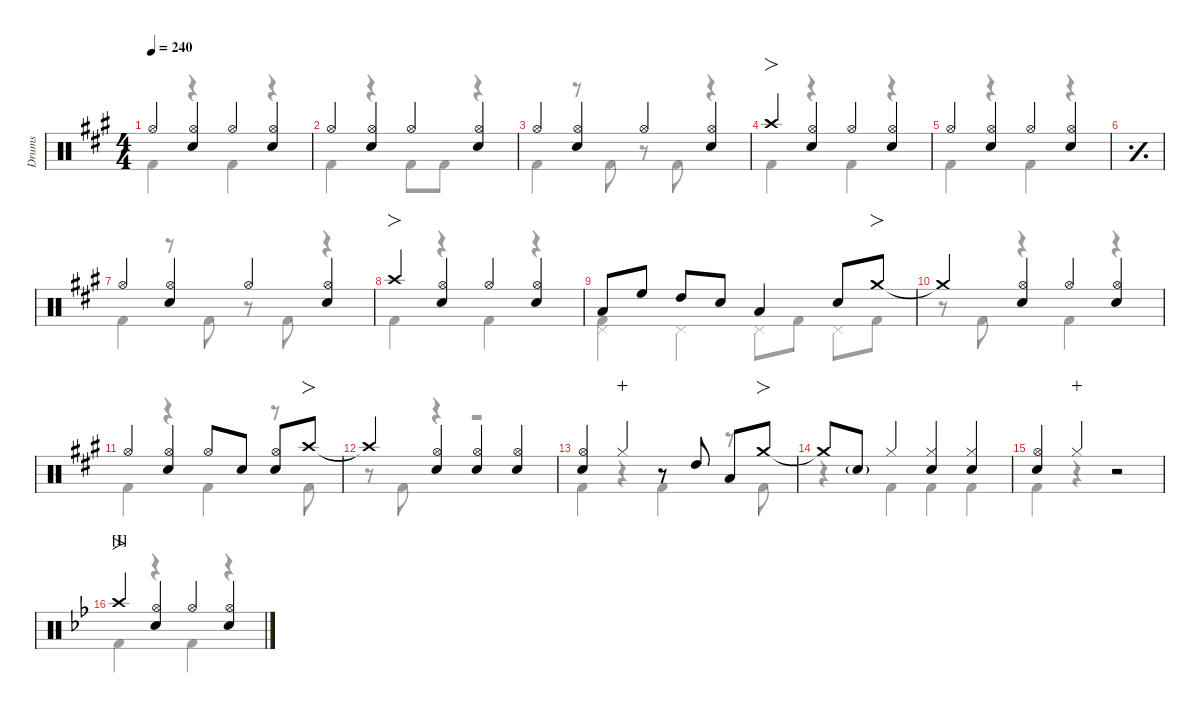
\defaultSystemsLayout 4
\hideDynamics
\bracketExtendMode nobrackets
\otherSystemsTrackNameOrientation horizontal
\track ("Drums" "Drums") {defaultSystemsLayout 4 instrument percussion}
\staff {score}
\articulation defaults
\voice
\ts (4 4)
\tempo 240
\clef neutral
\scale
0.976526
\ks a "Hi-Hat (open)"{acc forcenatural}.4{dy f beam Up}
("Hi-Hat (open)"{acc forcenatural} "Snare (hit) 2"{acc forcenatural}).4{beam Up} "Hi-Hat (open)"{acc forcenatural}.4{beam Up} ("Hi-Hat (open)"{acc forcenatural} "Snare (hit) 2"{acc forcenatural}).4{beam Up} |
\scale
0.976526 "Hi-Hat (open)"{acc forcenatural}.4{beam Up} ("Hi-Hat (open)"{acc forcenatural} "Snare (hit) 2"{acc forcenatural}).4{beam Up} "Hi-Hat (open)"{acc forcenatural}.4{beam Up} ("Hi-Hat (open)"{acc forcenatural} "Snare (hit) 2"{acc forcenatural}).4{beam Up} |
\scale
0.976526 "Hi-Hat (open)"{acc forcenatural}.4{beam Up} ("Hi-Hat (open)"{acc forcenatural} "Snare (hit) 2"{acc forcenatural}).4{beam Up} "Hi-Hat (open)"{acc forcenatural}.4{beam Up} ("Hi-Hat (open)"{acc forcenatural} "Snare (hit) 2"{acc forcenatural}).4{beam Up} |
\scale
1.07042 "Crash high (hit)"{acc forcenatural}.4{fo beam Up} ("Hi-Hat (open)"{acc forcenatural} "Snare (hit) 2"{acc forcenatural}).4{beam Up} "Hi-Hat (open)"{acc forcenatural}.4{beam Up} ("Hi-Hat (open)"{acc forcenatural} "Snare (hit) 2"{acc forcenatural}).4{beam Up} |
\scale
0.976526 "Hi-Hat (open)"{acc forcenatural}.4{beam Up} ("Hi-Hat (open)"{acc forcenatural} "Snare (hit) 2"{acc forcenatural}).4{beam Up} "Hi-Hat (open)"{acc forcenatural}.4{beam Up} ("Hi-Hat (open)"{acc forcenatural} "Snare (hit) 2"{acc forcenatural}).4{beam Up} |
\simile simple
\scale
0.976526 |
\simile none
\scale
0.976526 "Hi-Hat (open)"{acc forcenatural}.4{beam Up} ("Hi-Hat (open)"{acc forcenatural} "Snare (hit) 2"{acc forcenatural}).4{beam Up} "Hi-Hat (open)"{acc forcenatural}.4{beam Up} ("Hi-Hat (open)"{acc forcenatural} "Snare (hit) 2"{acc forcenatural}).4{beam Up} |
\scale
1.07042 "Crash high (hit)"{acc forcenatural}.4{fo beam Up} ("Hi-Hat (open)"{acc forcenatural} "Snare (hit) 2"{acc forcenatural}).4{beam Up} "Hi-Hat (open)"{acc forcenatural}.4{beam Up} ("Hi-Hat (open)"{acc forcenatural} "Snare (hit) 2"{acc forcenatural}).4{beam Up} |
\scale
0.976526 "Low Tom (hit)"{acc forcenatural}.8{dy fff beam Up} "High Floor Tom (hit)"{acc forcenatural}.8{beam Up} "High Tom (hit)"{acc forcenatural}.8{beam Up} "Snare (hit) 2"{acc forcenatural}.8{dy f beam Up} "Low Tom (hit)"{acc forcenatural}.4{dy fff beam Up} "Snare (hit) 2"{acc forcenatural}.8{dy f beam Up} "Crash medium (hit)"{acc forcenatural}.8{fo beam Up} |
\scale
0.976526 "Crash medium (hit)"{t acc forcenatural}.4{beam Up} ("Snare (hit) 2"{acc forcenatural} "Hi-Hat (open)"{acc forcenatural}).4{beam Up} "Hi-Hat (open)"{acc forcenatural}.4{beam Up} ("Hi-Hat (open)"{acc forcenatural} "Snare (hit) 2"{acc forcenatural}).4{beam Up} |
\scale
0.976526 "Hi-Hat (open)"{acc forcenatural}.4{beam Up} ("Hi-Hat (open)"{acc forcenatural} "Snare (hit) 2"{acc forcenatural}).4{beam Up} "Hi-Hat (open)"{acc forcenatural}.8{beam Up} "Snare (hit) 2"{acc forcenatural}.8{beam Up} ("Snare (hit) 2"{acc forcenatural} "Hi-Hat (open)"{acc forcenatural}).8{beam Up} "Crash high (hit)"{acc forcenatural}.8{fo beam Up} |
\scale
1.066 "Crash high (hit)"{t acc forcenatural}.4{beam Up} ("Hi-Hat (open)"{acc forcenatural} "Snare (hit) 2"{acc forcenatural}).4{beam Up} ("Hi-Hat (open)"{acc forcenatural} "Snare (hit) 2"{acc forcenatural}).4{beam Up} ("Hi-Hat (open)"{acc forcenatural} "Snare (hit) 2"{acc forcenatural}).4{beam Up} |
\scale
0.972105 ("Hi-Hat (open)"{acc forcenatural} "Snare (hit) 2"{acc forcenatural}).4{beam Up} "Hi-Hat (closed)"{acc forcenatural}.4{dy mf wahc beam Up} r.8{beam Up} "High Tom (hit)"{acc forcenatural}.8{dy fff beam Up} "Low Tom (hit)"{acc forcenatural}.8{beam Up} "Crash medium (hit)"{acc forcenatural}.8{fo dy f beam Up} |
\scale
0.972105 "Crash medium (hit)"{t acc forcenatural}.8{beam Up} "Snare (hit) 2"{g acc forcenatural}.8{dy mf beam Up} "Hi-Hat (closed)"{acc forcenatural}.4{dy f beam Up} ("Hi-Hat (closed)"{acc forcenatural} "Snare (hit) 2"{acc forcenatural}).4{beam Up} ("Hi-Hat (closed)"{acc forcenatural} "Snare (hit) 2"{acc forcenatural}).4{beam Up} |
\scale
0.98979 ("Hi-Hat (open)"{acc forcenatural} "Snare (hit) 2"{acc forcenatural}).4{beam Up} "Hi-Hat (closed)"{acc forcenatural}.4{dy p wahc beam Up} r.2{beam Up} |
\section ("I" "")
\scale
1.07042
\ks bb "Crash high (hit)"{acc forcenatural}.4{fo dy f beam Up}
("Hi-Hat (open)"{acc forcenatural} "Snare (hit) 2"{acc forcenatural}).4{beam Up} "Hi-Hat (open)"{acc forcenatural}.4{beam Up} ("Hi-Hat (open)"{acc forcenatural} "Snare (hit) 2"{acc forcenatural}).4{beam Up}
\voice
\clef neutral
\ottava regular
\simile none
\scale
0.976526
\ks a "Kick (hit) 2"{acc forcenatural}.4{dy f beam Down}
r.4{beam Down} "Kick (hit) 2"{acc forcenatural}.4{beam Down} r.4{beam Down} |
\scale
0.976526 "Kick (hit) 2"{acc forcenatural}.4{beam Down} r.4{beam Down} "Kick (hit) 2"{acc forcenatural}.8{beam Down} "Kick (hit) 2"{acc forcenatural}.8{beam Down} r.4{beam Down} |
\scale
0.976526 "Kick (hit) 2"{acc forcenatural}.4{beam Down} r.8{beam Down} "Kick (hit) 2"{acc forcenatural}.8{beam Down} r.8{beam Down} "Kick (hit) 2"{acc forcenatural}.8{beam Down} r.4{beam Down} |
\scale
1.07042 "Kick (hit) 2"{acc forcenatural}.4{beam Down} r.4{beam Down} "Kick (hit) 2"{acc forcenatural}.4{beam Down} r.4{beam Down} |
\scale
0.976526 "Kick (hit) 2"{acc forcenatural}.4{beam Down} r.4{beam Down} "Kick (hit) 2"{acc forcenatural}.4{beam Down} r.4{beam Down} |
\simile simple
\scale
0.976526 |
\simile none
\scale
0.976526 "Kick (hit) 2"{acc forcenatural}.4{beam Down} r.8{beam Down} "Kick (hit) 2"{acc forcenatural}.8{beam Down} r.8{beam Down} "Kick (hit) 2"{acc forcenatural}.8{beam Down} r.4{beam Down} |
\scale
1.07042 "Kick (hit) 2"{acc forcenatural}.4{beam Down} r.4{beam Down} "Kick (hit) 2"{acc forcenatural}.4{beam Down} r.4{beam Down} |
\scale
0.976526 ("Kick (hit) 2"{acc forcenatural} "Pedal Hi-Hat (hit)"{acc forcenatural}).4{beam Down} "Pedal Hi-Hat (hit)"{acc forcenatural}.4{beam Down} "Pedal Hi-Hat (hit)"{acc forcenatural}.8{beam Down} "Kick (hit) 2"{acc forcenatural}.8{beam Down} "Pedal Hi-Hat (hit)"{acc forcenatural}.8{beam Down} "Kick (hit) 2"{acc forcenatural}.8{beam Down} |
\scale
0.976526 r.8{beam Down} "Kick (hit) 2"{acc forcenatural}.8{beam Down} r.4{beam Down} "Kick (hit) 2"{acc forcenatural}.4{beam Down} r.4{beam Down} |
\scale
0.976526 "Kick (hit) 2"{acc forcenatural}.4{beam Down} r.4{beam Down} "Kick (hit) 2"{acc forcenatural}.4{beam Down} r.8{beam Down} "Kick (hit) 2"{acc forcenatural}.8{beam Down} |
\scale
1.066 r.8{beam Down} "Kick (hit) 2"{acc forcenatural}.8{beam Down} r.4{beam Down} r.2{beam Down} |
\scale
0.972105 "Kick (hit) 2"{acc forcenatural}.4{beam Down} r.4{beam Down} "Kick (hit) 2"{acc forcenatural}.4{beam Down} r.8{beam Down} "Kick (hit) 2"{acc forcenatural}.8{beam Down} |
\scale
0.972105 r.4{beam Down} "Kick (hit) 2"{acc forcenatural}.4{beam Down} "Kick (hit) 2"{acc forcenatural}.4{beam Down} "Kick (hit) 2"{acc forcenatural}.4{beam Down} |
\scale
0.98979 "Kick (hit) 2"{acc forcenatural}.4{beam Down} r.4{beam Down} r.2{beam Down} |
\scale
1.07042
\ks bb "Kick (hit) 2"{acc forcenatural}.4{beam Down}
r.4{beam Down} "Kick (hit) 2"{acc forcenatural}.4{beam Down} r.4{beam Down}
